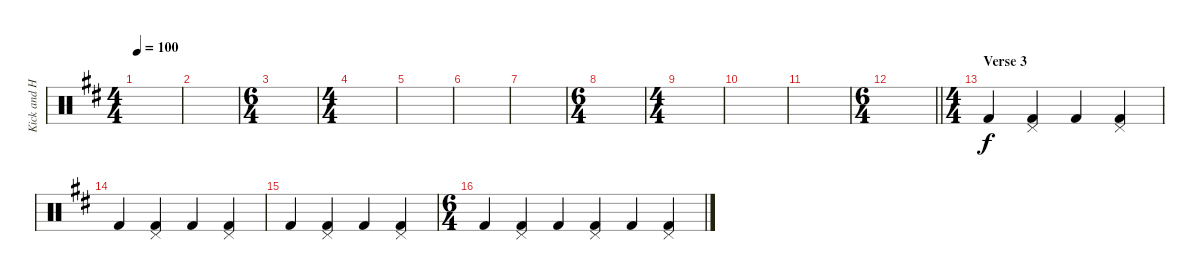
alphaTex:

\track ("Kick and HiHat" "Kick and H") {instrument percussion}
\staff {score}
\articulation defaults
\ts (4 4)
\tempo 100
\clef neutral
\ks d
|
|
\ts (6 4)
|
\ts (4 4)
|
|
|
|
\ts (6 4)
|
\ts (4 4)
|
|
|
\ts (6 4)
\barLineRight lightlight
|
\ts (4 4)
\section ("" "Verse 3")
"Kick (hit) 2".4 ("Pedal Hi-Hat (hit)" "Kick (hit) 2").4 "Kick (hit) 2".4 ("Pedal Hi-Hat (hit)" "Kick (hit) 2").4 |
"Kick (hit) 2".4 ("Pedal Hi-Hat (hit)" "Kick (hit) 2").4 "Kick (hit) 2".4 ("Pedal Hi-Hat (hit)" "Kick (hit) 2").4 |
"Kick (hit) 2".4 ("Pedal Hi-Hat (hit)" "Kick (hit) 2").4 "Kick (hit) 2".4 ("Pedal Hi-Hat (hit)" "Kick (hit) 2").4 |
\ts (6 4)
"Kick (hit) 2".4 ("Pedal Hi-Hat (hit)" "Kick (hit) 2").4 "Kick (hit) 2".4 ("Pedal Hi-Hat (hit)" "Kick (hit) 2").4 "Kick (hit) 2".4 ("Pedal Hi-Hat (hit)" "Kick (hit) 2").4
